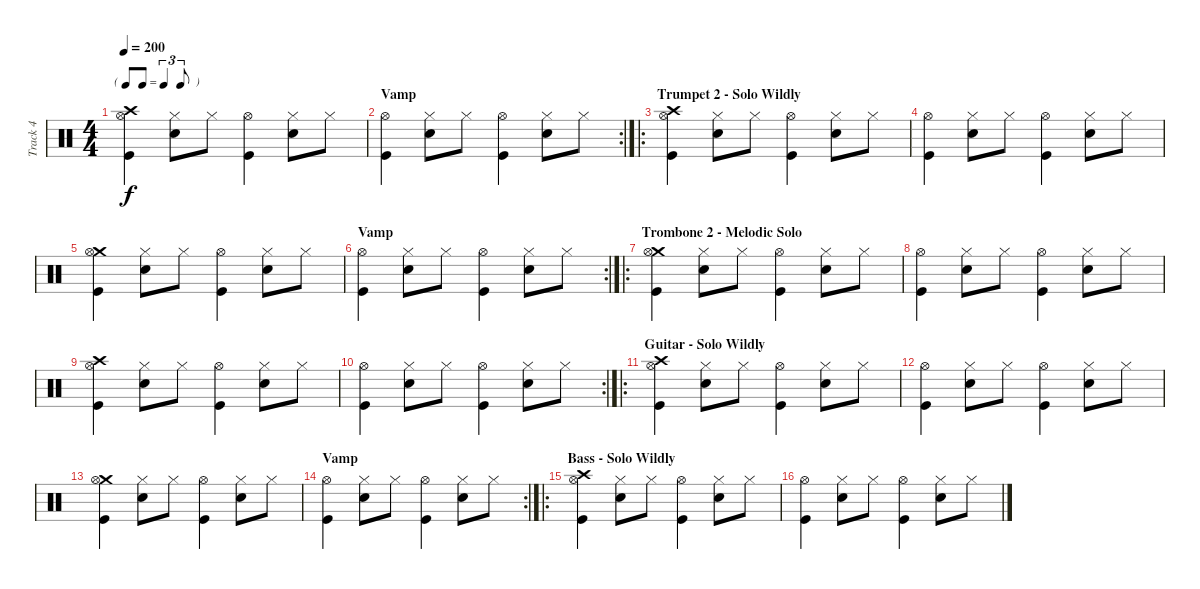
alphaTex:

\track ("Track 4" "Track 4") {instrument percussion}
\staff {score}
\articulation defaults
\ts (4 4)
\tf triplet8th
\tempo 200
\clef neutral
\ks c
("Crash high (hit)" "Hi-Hat (open)" "Kick (hit)").4{dy f} ("Hi-Hat (closed)" "Electric Snare (hit)").8 "Hi-Hat (closed)".8 ("Hi-Hat (open)" "Kick (hit)").4 ("Hi-Hat (closed)" "Electric Snare (hit)").8 "Hi-Hat (closed)".8 |
\rc 2
\section ("" "Vamp")
("Hi-Hat (open)" "Kick (hit)").4 ("Hi-Hat (closed)" "Electric Snare (hit)").8 "Hi-Hat (closed)".8 ("Hi-Hat (open)" "Kick (hit)").4 ("Hi-Hat (closed)" "Electric Snare (hit)").8 "Hi-Hat (closed)".8 |
\ro
\section ("" "Trumpet 2 - Solo Wildly")
("Crash high (hit)" "Hi-Hat (open)" "Kick (hit)").4 ("Hi-Hat (closed)" "Electric Snare (hit)").8 "Hi-Hat (closed)".8 ("Hi-Hat (open)" "Kick (hit)").4 ("Hi-Hat (closed)" "Electric Snare (hit)").8 "Hi-Hat (closed)".8 |
("Hi-Hat (open)" "Kick (hit)").4 ("Hi-Hat (closed)" "Electric Snare (hit)").8 "Hi-Hat (closed)".8 ("Hi-Hat (open)" "Kick (hit)").4 ("Hi-Hat (closed)" "Electric Snare (hit)").8 "Hi-Hat (closed)".8 |
("Crash medium (hit)" "Hi-Hat (open)" "Kick (hit)").4 ("Hi-Hat (closed)" "Electric Snare (hit)").8 "Hi-Hat (closed)".8 ("Hi-Hat (open)" "Kick (hit)").4 ("Hi-Hat (closed)" "Electric Snare (hit)").8 "Hi-Hat (closed)".8 |
\rc 2
\section ("" "Vamp")
("Hi-Hat (open)" "Kick (hit)").4 ("Hi-Hat (closed)" "Electric Snare (hit)").8 "Hi-Hat (closed)".8 ("Hi-Hat (open)" "Kick (hit)").4 ("Hi-Hat (closed)" "Electric Snare (hit)").8 "Hi-Hat (closed)".8 |
\ro
\section ("" "Trombone 2 - Melodic Solo")
("Crash medium (hit)" "Hi-Hat (open)" "Kick (hit)").4 ("Hi-Hat (closed)" "Electric Snare (hit)").8 "Hi-Hat (closed)".8 ("Hi-Hat (open)" "Kick (hit)").4 ("Hi-Hat (closed)" "Electric Snare (hit)").8 "Hi-Hat (closed)".8 |
("Hi-Hat (open)" "Kick (hit)").4 ("Hi-Hat (closed)" "Electric Snare (hit)").8 "Hi-Hat (closed)".8 ("Hi-Hat (open)" "Kick (hit)").4 ("Hi-Hat (closed)" "Electric Snare (hit)").8 "Hi-Hat (closed)".8 |
("Crash high (hit)" "Hi-Hat (open)" "Kick (hit)").4 ("Hi-Hat (closed)" "Electric Snare (hit)").8 "Hi-Hat (closed)".8 ("Hi-Hat (open)" "Kick (hit)").4 ("Hi-Hat (closed)" "Electric Snare (hit)").8 "Hi-Hat (closed)".8 |
\rc 2
("Hi-Hat (open)" "Kick (hit)").4 ("Hi-Hat (closed)" "Electric Snare (hit)").8 "Hi-Hat (closed)".8 ("Hi-Hat (open)" "Kick (hit)").4 ("Hi-Hat (closed)" "Electric Snare (hit)").8 "Hi-Hat (closed)".8 |
\ro
\section ("" "Guitar - Solo Wildly")
("Crash high (hit)" "Hi-Hat (open)" "Kick (hit)").4 ("Hi-Hat (closed)" "Electric Snare (hit)").8 "Hi-Hat (closed)".8 ("Hi-Hat (open)" "Kick (hit)").4 ("Hi-Hat (closed)" "Electric Snare (hit)").8 "Hi-Hat (closed)".8 |
("Hi-Hat (open)" "Kick (hit)").4 ("Hi-Hat (closed)" "Electric Snare (hit)").8 "Hi-Hat (closed)".8 ("Hi-Hat (open)" "Kick (hit)").4 ("Hi-Hat (closed)" "Electric Snare (hit)").8 "Hi-Hat (closed)".8 |
("Crash medium (hit)" "Hi-Hat (open)" "Kick (hit)").4 ("Hi-Hat (closed)" "Electric Snare (hit)").8 "Hi-Hat (closed)".8 ("Hi-Hat (open)" "Kick (hit)").4 ("Hi-Hat (closed)" "Electric Snare (hit)").8 "Hi-Hat (closed)".8 |
\rc 2
\section ("" "Vamp")
("Hi-Hat (open)" "Kick (hit)").4 ("Hi-Hat (closed)" "Electric Snare (hit)").8 "Hi-Hat (closed)".8 ("Hi-Hat (open)" "Kick (hit)").4 ("Hi-Hat (closed)" "Electric Snare (hit)").8 "Hi-Hat (closed)".8 |
\ro
\section ("" "Bass - Solo Wildly")
("Crash high (hit)" "Hi-Hat (open)" "Kick (hit)").4 ("Hi-Hat (closed)" "Electric Snare (hit)").8 "Hi-Hat (closed)".8 ("Hi-Hat (open)" "Kick (hit)").4 ("Hi-Hat (closed)" "Electric Snare (hit)").8 "Hi-Hat (closed)".8 |
("Hi-Hat (open)" "Kick (hit)").4 ("Hi-Hat (closed)" "Electric Snare (hit)").8 "Hi-Hat (closed)".8 ("Hi-Hat (open)" "Kick (hit)").4 ("Hi-Hat (closed)" "Electric Snare (hit)").8 "Hi-Hat (closed)".8
